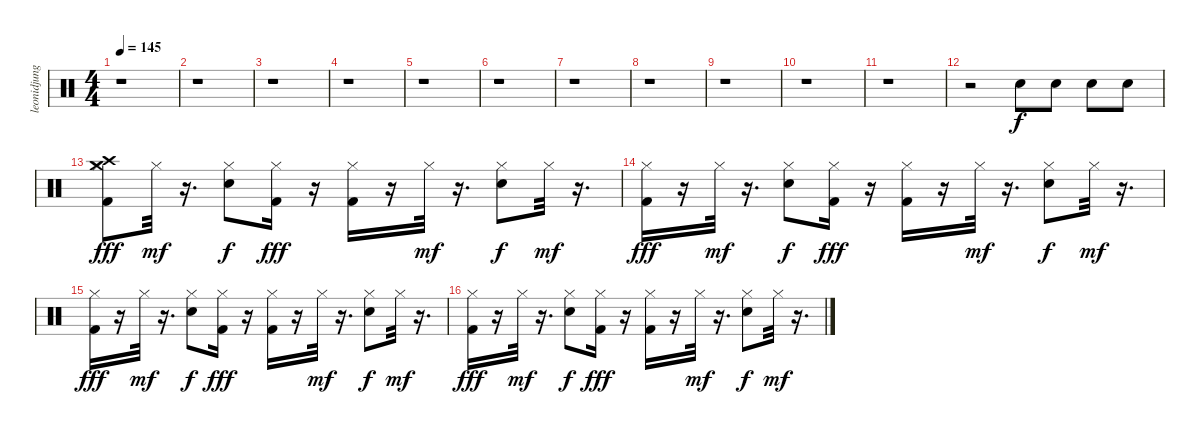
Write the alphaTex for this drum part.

\track ("leonidjung@freenet.de" "leonidjung") {instrument percussion}
\staff {score}
\articulation defaults
\ts (4 4)
\tempo 145
\clef neutral
\ks c
r.1{dy fff} |
r.1 |
r.1 |
r.1 |
r.1 |
r.1 |
r.1 |
r.1 |
r.1 |
r.1 |
r.1 |
r.2 "Snare (hit) 2".8{dy f} "Snare (hit) 2".8 "Snare (hit) 2".8 "Snare (hit) 2".8 |
("Hi-Hat (closed)" "Crash high (hit)" "Crash medium (hit)" "Kick (hit) 2").8{dy fff} "Hi-Hat (closed)".32{dy mf} r.16{d} ("Snare (hit) 2" "Hi-Hat (closed)").8{dy f} ("Hi-Hat (closed)" "Kick (hit) 2").16{dy fff} r.16 ("Hi-Hat (closed)" "Kick (hit) 2").16 r.16 "Hi-Hat (closed)".32{dy mf} r.16{d} ("Snare (hit) 2" "Hi-Hat (closed)").8{dy f} "Hi-Hat (closed)".32{dy mf} r.16{d} |
("Hi-Hat (closed)" "Kick (hit) 2").16{dy fff} r.16 "Hi-Hat (closed)".32{dy mf} r.16{d} ("Snare (hit) 2" "Hi-Hat (closed)").8{dy f} ("Hi-Hat (closed)" "Kick (hit) 2").16{dy fff} r.16 ("Hi-Hat (closed)" "Kick (hit) 2").16 r.16 "Hi-Hat (closed)".32{dy mf} r.16{d} ("Snare (hit) 2" "Hi-Hat (closed)").8{dy f} "Hi-Hat (closed)".32{dy mf} r.16{d} |
("Hi-Hat (closed)" "Kick (hit) 2").16{dy fff} r.16 "Hi-Hat (closed)".32{dy mf} r.16{d} ("Snare (hit) 2" "Hi-Hat (closed)").8{dy f} ("Hi-Hat (closed)" "Kick (hit) 2").16{dy fff} r.16 ("Hi-Hat (closed)" "Kick (hit) 2").16 r.16 "Hi-Hat (closed)".32{dy mf} r.16{d} ("Snare (hit) 2" "Hi-Hat (closed)").8{dy f} "Hi-Hat (closed)".32{dy mf} r.16{d} |
("Hi-Hat (closed)" "Kick (hit) 2").16{dy fff} r.16 "Hi-Hat (closed)".32{dy mf} r.16{d} ("Snare (hit) 2" "Hi-Hat (closed)").8{dy f} ("Hi-Hat (closed)" "Kick (hit) 2").16{dy fff} r.16 ("Hi-Hat (closed)" "Kick (hit) 2").16 r.16 "Hi-Hat (closed)".32{dy mf} r.16{d} ("Snare (hit) 2" "Hi-Hat (closed)").8{dy f} "Hi-Hat (closed)".32{dy mf} r.16{d}
